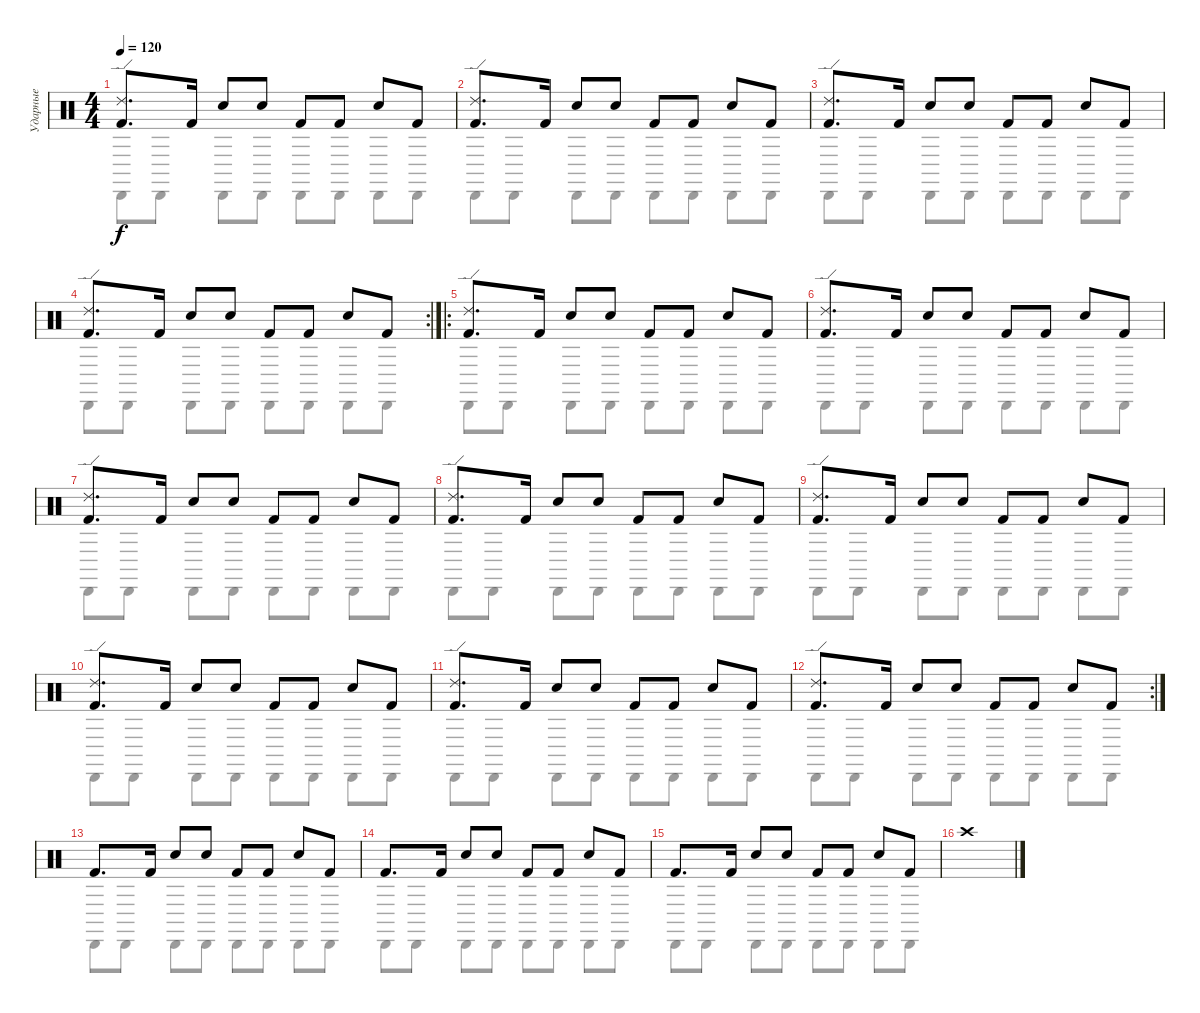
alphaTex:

\track ("Ударные" "Ударные") {instrument percussion}
\staff {score}
\articulation defaults
\voice
\ts (4 4)
\tempo 120
\clef neutral
\ks c
("Kick (hit) 2" "Ride (edge) 2").8{d dy f} "Kick (hit) 2".16 "Hand Clap (hit)".8 "Hand Clap (hit)".8 "Kick (hit) 2".8 "Kick (hit) 2".8 "Hand Clap (hit)".8 "Kick (hit) 2".8 |
("Kick (hit) 2" "Ride (edge) 2").8{d} "Kick (hit) 2".16 "Hand Clap (hit)".8 "Hand Clap (hit)".8 "Kick (hit) 2".8 "Kick (hit) 2".8 "Hand Clap (hit)".8 "Kick (hit) 2".8 |
("Kick (hit) 2" "Ride (edge) 2").8{d} "Kick (hit) 2".16 "Hand Clap (hit)".8 "Hand Clap (hit)".8 "Kick (hit) 2".8 "Kick (hit) 2".8 "Hand Clap (hit)".8 "Kick (hit) 2".8 |
\rc 2
("Kick (hit) 2" "Ride (edge) 2").8{d} "Kick (hit) 2".16 "Hand Clap (hit)".8 "Hand Clap (hit)".8 "Kick (hit) 2".8 "Kick (hit) 2".8 "Hand Clap (hit)".8 "Kick (hit) 2".8 |
\ro
("Kick (hit) 2" "Ride (edge) 2").8{d} "Kick (hit) 2".16 "Hand Clap (hit)".8 "Hand Clap (hit)".8 "Kick (hit) 2".8 "Kick (hit) 2".8 "Hand Clap (hit)".8 "Kick (hit) 2".8 |
("Kick (hit) 2" "Ride (edge) 2").8{d} "Kick (hit) 2".16 "Hand Clap (hit)".8 "Hand Clap (hit)".8 "Kick (hit) 2".8 "Kick (hit) 2".8 "Hand Clap (hit)".8 "Kick (hit) 2".8 |
("Kick (hit) 2" "Ride (edge) 2").8{d} "Kick (hit) 2".16 "Hand Clap (hit)".8 "Hand Clap (hit)".8 "Kick (hit) 2".8 "Kick (hit) 2".8 "Hand Clap (hit)".8 "Kick (hit) 2".8 |
("Kick (hit) 2" "Ride (edge) 2").8{d} "Kick (hit) 2".16 "Hand Clap (hit)".8 "Hand Clap (hit)".8 "Kick (hit) 2".8 "Kick (hit) 2".8 "Hand Clap (hit)".8 "Kick (hit) 2".8 |
("Kick (hit) 2" "Ride (edge) 2").8{d} "Kick (hit) 2".16 "Hand Clap (hit)".8 "Hand Clap (hit)".8 "Kick (hit) 2".8 "Kick (hit) 2".8 "Hand Clap (hit)".8 "Kick (hit) 2".8 |
("Kick (hit) 2" "Ride (edge) 2").8{d} "Kick (hit) 2".16 "Hand Clap (hit)".8 "Hand Clap (hit)".8 "Kick (hit) 2".8 "Kick (hit) 2".8 "Hand Clap (hit)".8 "Kick (hit) 2".8 |
("Kick (hit) 2" "Ride (edge) 2").8{d} "Kick (hit) 2".16 "Hand Clap (hit)".8 "Hand Clap (hit)".8 "Kick (hit) 2".8 "Kick (hit) 2".8 "Hand Clap (hit)".8 "Kick (hit) 2".8 |
\rc 2
("Kick (hit) 2" "Ride (edge) 2").8{d} "Kick (hit) 2".16 "Hand Clap (hit)".8 "Hand Clap (hit)".8 "Kick (hit) 2".8 "Kick (hit) 2".8 "Hand Clap (hit)".8 "Kick (hit) 2".8 |
"Kick (hit) 2".8{d} "Kick (hit) 2".16 "Hand Clap (hit)".8 "Hand Clap (hit)".8 "Kick (hit) 2".8 "Kick (hit) 2".8 "Hand Clap (hit)".8 "Kick (hit) 2".8 |
"Kick (hit) 2".8{d} "Kick (hit) 2".16 "Hand Clap (hit)".8 "Hand Clap (hit)".8 "Kick (hit) 2".8 "Kick (hit) 2".8 "Hand Clap (hit)".8 "Kick (hit) 2".8 |
"Kick (hit) 2".8{d} "Kick (hit) 2".16 "Hand Clap (hit)".8 "Hand Clap (hit)".8 "Kick (hit) 2".8 "Kick (hit) 2".8 "Hand Clap (hit)".8 "Kick (hit) 2".8 |
"Crash high (hit)".1
\voice
\clef neutral
\ottava regular
\simile none
\ks c "Cabasa (hit)".8{dy f} "Cabasa (hit)".8 "Cabasa (hit)".8 "Cabasa (hit)".8 "Cabasa (hit)".8 "Cabasa (hit)".8 "Cabasa (hit)".8 "Cabasa (hit)".8
|
"Cabasa (hit)".8 "Cabasa (hit)".8 "Cabasa (hit)".8 "Cabasa (hit)".8 "Cabasa (hit)".8 "Cabasa (hit)".8 "Cabasa (hit)".8 "Cabasa (hit)".8 |
"Cabasa (hit)".8 "Cabasa (hit)".8 "Cabasa (hit)".8 "Cabasa (hit)".8 "Cabasa (hit)".8 "Cabasa (hit)".8 "Cabasa (hit)".8 "Cabasa (hit)".8 |
"Cabasa (hit)".8 "Cabasa (hit)".8 "Cabasa (hit)".8 "Cabasa (hit)".8 "Cabasa (hit)".8 "Cabasa (hit)".8 "Cabasa (hit)".8 "Cabasa (hit)".8 |
"Cabasa (hit)".8 "Cabasa (hit)".8 "Cabasa (hit)".8 "Cabasa (hit)".8 "Cabasa (hit)".8 "Cabasa (hit)".8 "Cabasa (hit)".8 "Cabasa (hit)".8 |
"Cabasa (hit)".8 "Cabasa (hit)".8 "Cabasa (hit)".8 "Cabasa (hit)".8 "Cabasa (hit)".8 "Cabasa (hit)".8 "Cabasa (hit)".8 "Cabasa (hit)".8 |
"Cabasa (hit)".8 "Cabasa (hit)".8 "Cabasa (hit)".8 "Cabasa (hit)".8 "Cabasa (hit)".8 "Cabasa (hit)".8 "Cabasa (hit)".8 "Cabasa (hit)".8 |
"Cabasa (hit)".8 "Cabasa (hit)".8 "Cabasa (hit)".8 "Cabasa (hit)".8 "Cabasa (hit)".8 "Cabasa (hit)".8 "Cabasa (hit)".8 "Cabasa (hit)".8 |
"Cabasa (hit)".8 "Cabasa (hit)".8 "Cabasa (hit)".8 "Cabasa (hit)".8 "Cabasa (hit)".8 "Cabasa (hit)".8 "Cabasa (hit)".8 "Cabasa (hit)".8 |
"Cabasa (hit)".8 "Cabasa (hit)".8 "Cabasa (hit)".8 "Cabasa (hit)".8 "Cabasa (hit)".8 "Cabasa (hit)".8 "Cabasa (hit)".8 "Cabasa (hit)".8 |
"Cabasa (hit)".8 "Cabasa (hit)".8 "Cabasa (hit)".8 "Cabasa (hit)".8 "Cabasa (hit)".8 "Cabasa (hit)".8 "Cabasa (hit)".8 "Cabasa (hit)".8 |
"Cabasa (hit)".8 "Cabasa (hit)".8 "Cabasa (hit)".8 "Cabasa (hit)".8 "Cabasa (hit)".8 "Cabasa (hit)".8 "Cabasa (hit)".8 "Cabasa (hit)".8 |
"Cabasa (hit)".8 "Cabasa (hit)".8 "Cabasa (hit)".8 "Cabasa (hit)".8 "Cabasa (hit)".8 "Cabasa (hit)".8 "Cabasa (hit)".8 "Cabasa (hit)".8 |
"Cabasa (hit)".8 "Cabasa (hit)".8 "Cabasa (hit)".8 "Cabasa (hit)".8 "Cabasa (hit)".8 "Cabasa (hit)".8 "Cabasa (hit)".8 "Cabasa (hit)".8 |
"Cabasa (hit)".8 "Cabasa (hit)".8 "Cabasa (hit)".8 "Cabasa (hit)".8 "Cabasa (hit)".8 "Cabasa (hit)".8 "Cabasa (hit)".8 "Cabasa (hit)".8 |
